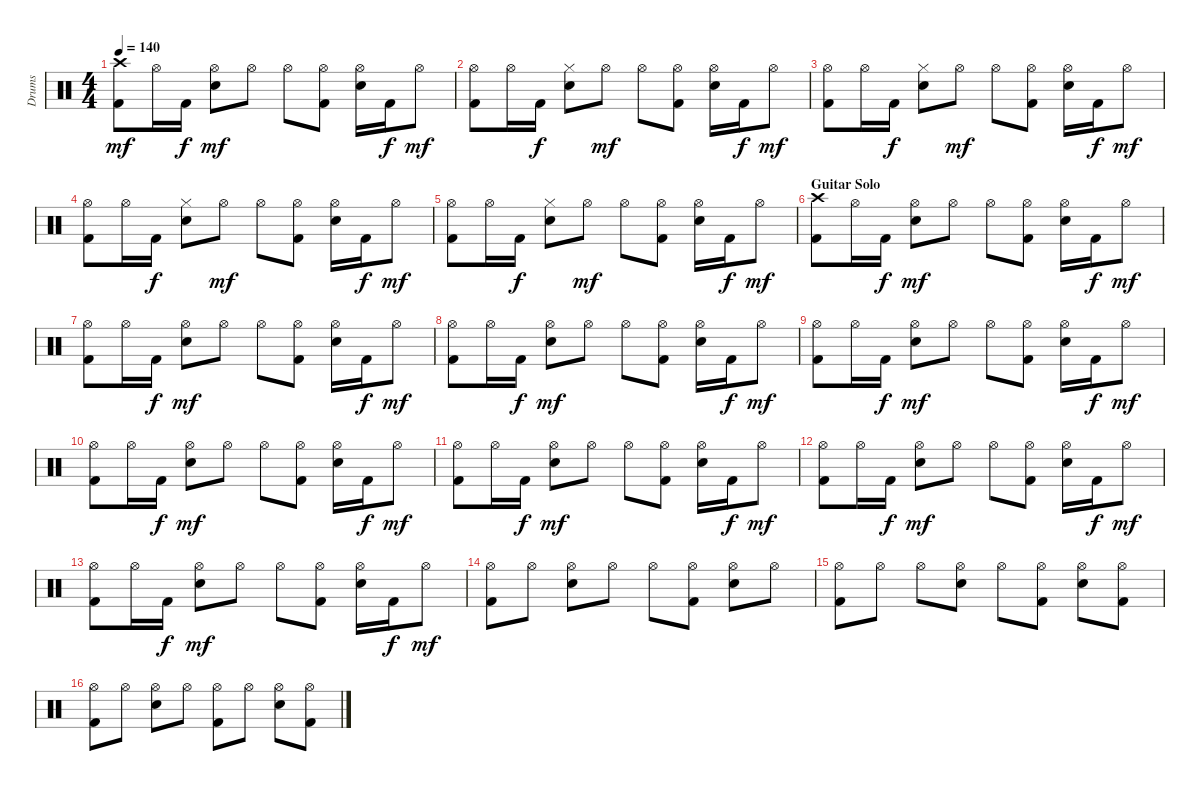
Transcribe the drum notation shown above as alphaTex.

\track ("Drums" "Drums") {instrument percussion}
\staff {score}
\articulation defaults
\ts (4 4)
\tempo 140
\clef neutral
\ks c
("Crash high (hit)" "Kick (hit) 2").8{dy mf} "Hi-Hat (open)".16 "Kick (hit) 2".16{dy f} ("Hi-Hat (open)" "Electric Snare (hit)").8{dy mf} "Hi-Hat (open)".8 "Hi-Hat (open)".8 ("Hi-Hat (open)" "Kick (hit) 2").8 ("Hi-Hat (open)" "Electric Snare (hit)").16 "Kick (hit) 2".16{dy f} "Hi-Hat (open)".8{dy mf} |
("Hi-Hat (open)" "Kick (hit) 2").8 "Hi-Hat (open)".16 "Kick (hit) 2".16{dy f} ("Hi-Hat (closed)" "Electric Snare (hit)").8 "Hi-Hat (open)".8{dy mf} "Hi-Hat (open)".8 ("Hi-Hat (open)" "Kick (hit) 2").8 ("Hi-Hat (open)" "Electric Snare (hit)").16 "Kick (hit) 2".16{dy f} "Hi-Hat (open)".8{dy mf} |
("Hi-Hat (open)" "Kick (hit) 2").8 "Hi-Hat (open)".16 "Kick (hit) 2".16{dy f} ("Hi-Hat (closed)" "Electric Snare (hit)").8 "Hi-Hat (open)".8{dy mf} "Hi-Hat (open)".8 ("Hi-Hat (open)" "Kick (hit) 2").8 ("Hi-Hat (open)" "Electric Snare (hit)").16 "Kick (hit) 2".16{dy f} "Hi-Hat (open)".8{dy mf} |
("Hi-Hat (open)" "Kick (hit) 2").8 "Hi-Hat (open)".16 "Kick (hit) 2".16{dy f} ("Hi-Hat (closed)" "Electric Snare (hit)").8 "Hi-Hat (open)".8{dy mf} "Hi-Hat (open)".8 ("Hi-Hat (open)" "Kick (hit) 2").8 ("Hi-Hat (open)" "Electric Snare (hit)").16 "Kick (hit) 2".16{dy f} "Hi-Hat (open)".8{dy mf} |
("Hi-Hat (open)" "Kick (hit) 2").8 "Hi-Hat (open)".16 "Kick (hit) 2".16{dy f} ("Hi-Hat (closed)" "Electric Snare (hit)").8 "Hi-Hat (open)".8{dy mf} "Hi-Hat (open)".8 ("Hi-Hat (open)" "Kick (hit) 2").8 ("Hi-Hat (open)" "Electric Snare (hit)").16 "Kick (hit) 2".16{dy f} "Hi-Hat (open)".8{dy mf} |
\section ("" "Guitar Solo")
("Crash high (hit)" "Kick (hit) 2").8 "Hi-Hat (open)".16 "Kick (hit) 2".16{dy f} ("Hi-Hat (open)" "Electric Snare (hit)").8{dy mf} "Hi-Hat (open)".8 "Hi-Hat (open)".8 ("Hi-Hat (open)" "Kick (hit) 2").8 ("Hi-Hat (open)" "Electric Snare (hit)").16 "Kick (hit) 2".16{dy f} "Hi-Hat (open)".8{dy mf} |
("Hi-Hat (open)" "Kick (hit) 2").8 "Hi-Hat (open)".16 "Kick (hit) 2".16{dy f} ("Hi-Hat (open)" "Electric Snare (hit)").8{dy mf} "Hi-Hat (open)".8 "Hi-Hat (open)".8 ("Hi-Hat (open)" "Kick (hit) 2").8 ("Hi-Hat (open)" "Electric Snare (hit)").16 "Kick (hit) 2".16{dy f} "Hi-Hat (open)".8{dy mf} |
("Hi-Hat (open)" "Kick (hit) 2").8 "Hi-Hat (open)".16 "Kick (hit) 2".16{dy f} ("Hi-Hat (open)" "Electric Snare (hit)").8{dy mf} "Hi-Hat (open)".8 "Hi-Hat (open)".8 ("Hi-Hat (open)" "Kick (hit) 2").8 ("Hi-Hat (open)" "Electric Snare (hit)").16 "Kick (hit) 2".16{dy f} "Hi-Hat (open)".8{dy mf} |
("Hi-Hat (open)" "Kick (hit) 2").8 "Hi-Hat (open)".16 "Kick (hit) 2".16{dy f} ("Hi-Hat (open)" "Electric Snare (hit)").8{dy mf} "Hi-Hat (open)".8 "Hi-Hat (open)".8 ("Hi-Hat (open)" "Kick (hit) 2").8 ("Hi-Hat (open)" "Electric Snare (hit)").16 "Kick (hit) 2".16{dy f} "Hi-Hat (open)".8{dy mf} |
("Hi-Hat (open)" "Kick (hit) 2").8 "Hi-Hat (open)".16 "Kick (hit) 2".16{dy f} ("Hi-Hat (open)" "Electric Snare (hit)").8{dy mf} "Hi-Hat (open)".8 "Hi-Hat (open)".8 ("Hi-Hat (open)" "Kick (hit) 2").8 ("Hi-Hat (open)" "Electric Snare (hit)").16 "Kick (hit) 2".16{dy f} "Hi-Hat (open)".8{dy mf} |
("Hi-Hat (open)" "Kick (hit) 2").8 "Hi-Hat (open)".16 "Kick (hit) 2".16{dy f} ("Hi-Hat (open)" "Electric Snare (hit)").8{dy mf} "Hi-Hat (open)".8 "Hi-Hat (open)".8 ("Hi-Hat (open)" "Kick (hit) 2").8 ("Hi-Hat (open)" "Electric Snare (hit)").16 "Kick (hit) 2".16{dy f} "Hi-Hat (open)".8{dy mf} |
("Hi-Hat (open)" "Kick (hit) 2").8 "Hi-Hat (open)".16 "Kick (hit) 2".16{dy f} ("Hi-Hat (open)" "Electric Snare (hit)").8{dy mf} "Hi-Hat (open)".8 "Hi-Hat (open)".8 ("Hi-Hat (open)" "Kick (hit) 2").8 ("Hi-Hat (open)" "Electric Snare (hit)").16 "Kick (hit) 2".16{dy f} "Hi-Hat (open)".8{dy mf} |
("Hi-Hat (open)" "Kick (hit) 2").8 "Hi-Hat (open)".16 "Kick (hit) 2".16{dy f} ("Hi-Hat (open)" "Electric Snare (hit)").8{dy mf} "Hi-Hat (open)".8 "Hi-Hat (open)".8 ("Hi-Hat (open)" "Kick (hit) 2").8 ("Hi-Hat (open)" "Electric Snare (hit)").16 "Kick (hit) 2".16{dy f} "Hi-Hat (open)".8{dy mf} |
("Hi-Hat (open)" "Kick (hit) 2").8 "Hi-Hat (open)".8 ("Hi-Hat (open)" "Electric Snare (hit)").8 "Hi-Hat (open)".8 "Hi-Hat (open)".8 ("Hi-Hat (open)" "Kick (hit) 2").8 ("Hi-Hat (open)" "Electric Snare (hit)").8 "Hi-Hat (open)".8 |
("Hi-Hat (open)" "Kick (hit) 2").8 "Hi-Hat (open)".8 "Hi-Hat (open)".8 ("Hi-Hat (open)" "Electric Snare (hit)").8 "Hi-Hat (open)".8 ("Hi-Hat (open)" "Kick (hit) 2").8 ("Hi-Hat (open)" "Electric Snare (hit)").8 ("Hi-Hat (open)" "Kick (hit) 2").8 |
("Hi-Hat (open)" "Kick (hit) 2").8 "Hi-Hat (open)".8 ("Hi-Hat (open)" "Electric Snare (hit)").8 "Hi-Hat (open)".8 ("Hi-Hat (open)" "Kick (hit) 2").8 "Hi-Hat (open)".8 ("Hi-Hat (open)" "Electric Snare (hit)").8 ("Hi-Hat (open)" "Kick (hit) 2").8
